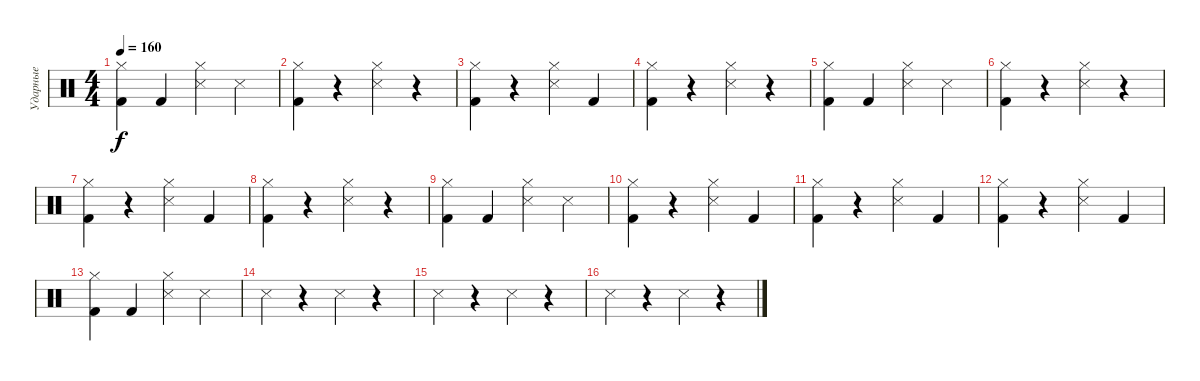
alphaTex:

\track ("Ударные" "Ударные") {instrument percussion}
\staff
\articulation defaults
\ts (4 4)
\tempo 160
\clef neutral
\ks c
("Kick (hit) 2" "Hi-Hat (closed)").4{dy f} "Kick (hit) 2".4 ("Snare (side stick) 3" "Hi-Hat (closed)").4 "Snare (side stick) 3".4 |
("Kick (hit) 2" "Hi-Hat (closed)").4 r.4 ("Snare (side stick) 3" "Hi-Hat (closed)").4 r.4 |
("Kick (hit) 2" "Hi-Hat (closed)").4 r.4 ("Snare (side stick) 3" "Hi-Hat (closed)").4 "Kick (hit) 2".4 |
("Kick (hit) 2" "Hi-Hat (closed)").4 r.4 ("Snare (side stick) 3" "Hi-Hat (closed)").4 r.4 |
("Kick (hit) 2" "Hi-Hat (closed)").4 "Kick (hit) 2".4 ("Snare (side stick) 3" "Hi-Hat (closed)").4 "Snare (side stick) 3".4 |
("Kick (hit) 2" "Hi-Hat (closed)").4 r.4 ("Snare (side stick) 3" "Hi-Hat (closed)").4 r.4 |
("Kick (hit) 2" "Hi-Hat (closed)").4 r.4 ("Snare (side stick) 3" "Hi-Hat (closed)").4 "Kick (hit) 2".4 |
("Kick (hit) 2" "Hi-Hat (closed)").4 r.4 ("Snare (side stick) 3" "Hi-Hat (closed)").4 r.4 |
("Kick (hit) 2" "Hi-Hat (closed)").4 "Kick (hit) 2".4 ("Snare (side stick) 3" "Hi-Hat (closed)").4 "Snare (side stick) 3".4 |
("Kick (hit) 2" "Hi-Hat (closed)").4 r.4 ("Snare (side stick) 3" "Hi-Hat (closed)").4 "Kick (hit) 2".4 |
("Kick (hit) 2" "Hi-Hat (closed)").4 r.4 ("Snare (side stick) 3" "Hi-Hat (closed)").4 "Kick (hit) 2".4 |
("Kick (hit) 2" "Hi-Hat (closed)").4 r.4 ("Snare (side stick) 3" "Hi-Hat (closed)").4 "Kick (hit) 2".4 |
("Kick (hit) 2" "Hi-Hat (closed)").4 "Kick (hit) 2".4 ("Snare (side stick) 3" "Hi-Hat (closed)").4 "Snare (side stick) 3".4 |
"Snare (side stick) 3".4 r.4 "Snare (side stick) 3".4 r.4 |
"Snare (side stick) 3".4 r.4 "Snare (side stick) 3".4 r.4 |
"Snare (side stick) 3".4 r.4 "Snare (side stick) 3".4 r.4
